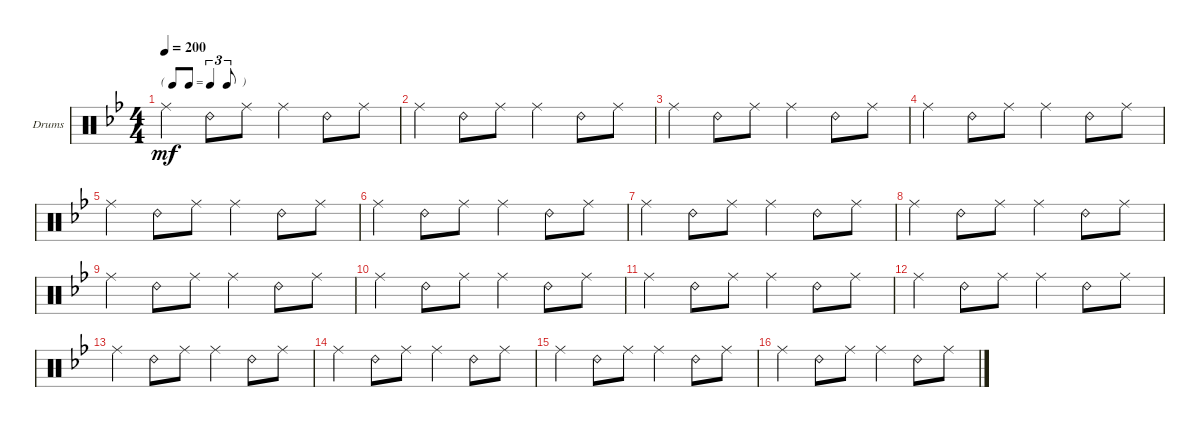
\defaultSystemsLayout 4
\bracketExtendMode groupsimilarinstruments
\firstSystemTrackNameOrientation horizontal
\otherSystemsTrackNameOrientation horizontal
\track ("Drumkit" "Drums") {instrument percussion}
\staff {score}
\articulation defaults
\ts (4 4)
\tf triplet8th
\tempo 200
\clef neutral
\ks bb "Ride (middle)".4{dy mf} "Ride (bell) 2".8 "Ride (middle)".8 "Ride (middle)".4 "Ride (bell) 2".8 "Ride (middle)".8
|
"Ride (middle)".4 "Ride (bell) 2".8 "Ride (middle)".8 "Ride (middle)".4 "Ride (bell) 2".8 "Ride (middle)".8 |
"Ride (middle)".4 "Ride (bell) 2".8 "Ride (middle)".8 "Ride (middle)".4 "Ride (bell) 2".8 "Ride (middle)".8 |
"Ride (middle)".4 "Ride (bell) 2".8 "Ride (middle)".8 "Ride (middle)".4 "Ride (bell) 2".8 "Ride (middle)".8 |
"Ride (middle)".4 "Ride (bell) 2".8 "Ride (middle)".8 "Ride (middle)".4 "Ride (bell) 2".8 "Ride (middle)".8 |
"Ride (middle)".4 "Ride (bell) 2".8 "Ride (middle)".8 "Ride (middle)".4 "Ride (bell) 2".8 "Ride (middle)".8 |
"Ride (middle)".4 "Ride (bell) 2".8 "Ride (middle)".8 "Ride (middle)".4 "Ride (bell) 2".8 "Ride (middle)".8 |
"Ride (middle)".4 "Ride (bell) 2".8 "Ride (middle)".8 "Ride (middle)".4 "Ride (bell) 2".8 "Ride (middle)".8 |
"Ride (middle)".4 "Ride (bell) 2".8 "Ride (middle)".8 "Ride (middle)".4 "Ride (bell) 2".8 "Ride (middle)".8 |
"Ride (middle)".4 "Ride (bell) 2".8 "Ride (middle)".8 "Ride (middle)".4 "Ride (bell) 2".8 "Ride (middle)".8 |
"Ride (middle)".4 "Ride (bell) 2".8 "Ride (middle)".8 "Ride (middle)".4 "Ride (bell) 2".8 "Ride (middle)".8 |
"Ride (middle)".4 "Ride (bell) 2".8 "Ride (middle)".8 "Ride (middle)".4 "Ride (bell) 2".8 "Ride (middle)".8 |
"Ride (middle)".4 "Ride (bell) 2".8 "Ride (middle)".8 "Ride (middle)".4 "Ride (bell) 2".8 "Ride (middle)".8 |
"Ride (middle)".4 "Ride (bell) 2".8 "Ride (middle)".8 "Ride (middle)".4 "Ride (bell) 2".8 "Ride (middle)".8 |
"Ride (middle)".4 "Ride (bell) 2".8 "Ride (middle)".8 "Ride (middle)".4 "Ride (bell) 2".8 "Ride (middle)".8 |
"Ride (middle)".4 "Ride (bell) 2".8 "Ride (middle)".8 "Ride (middle)".4 "Ride (bell) 2".8 "Ride (middle)".8
